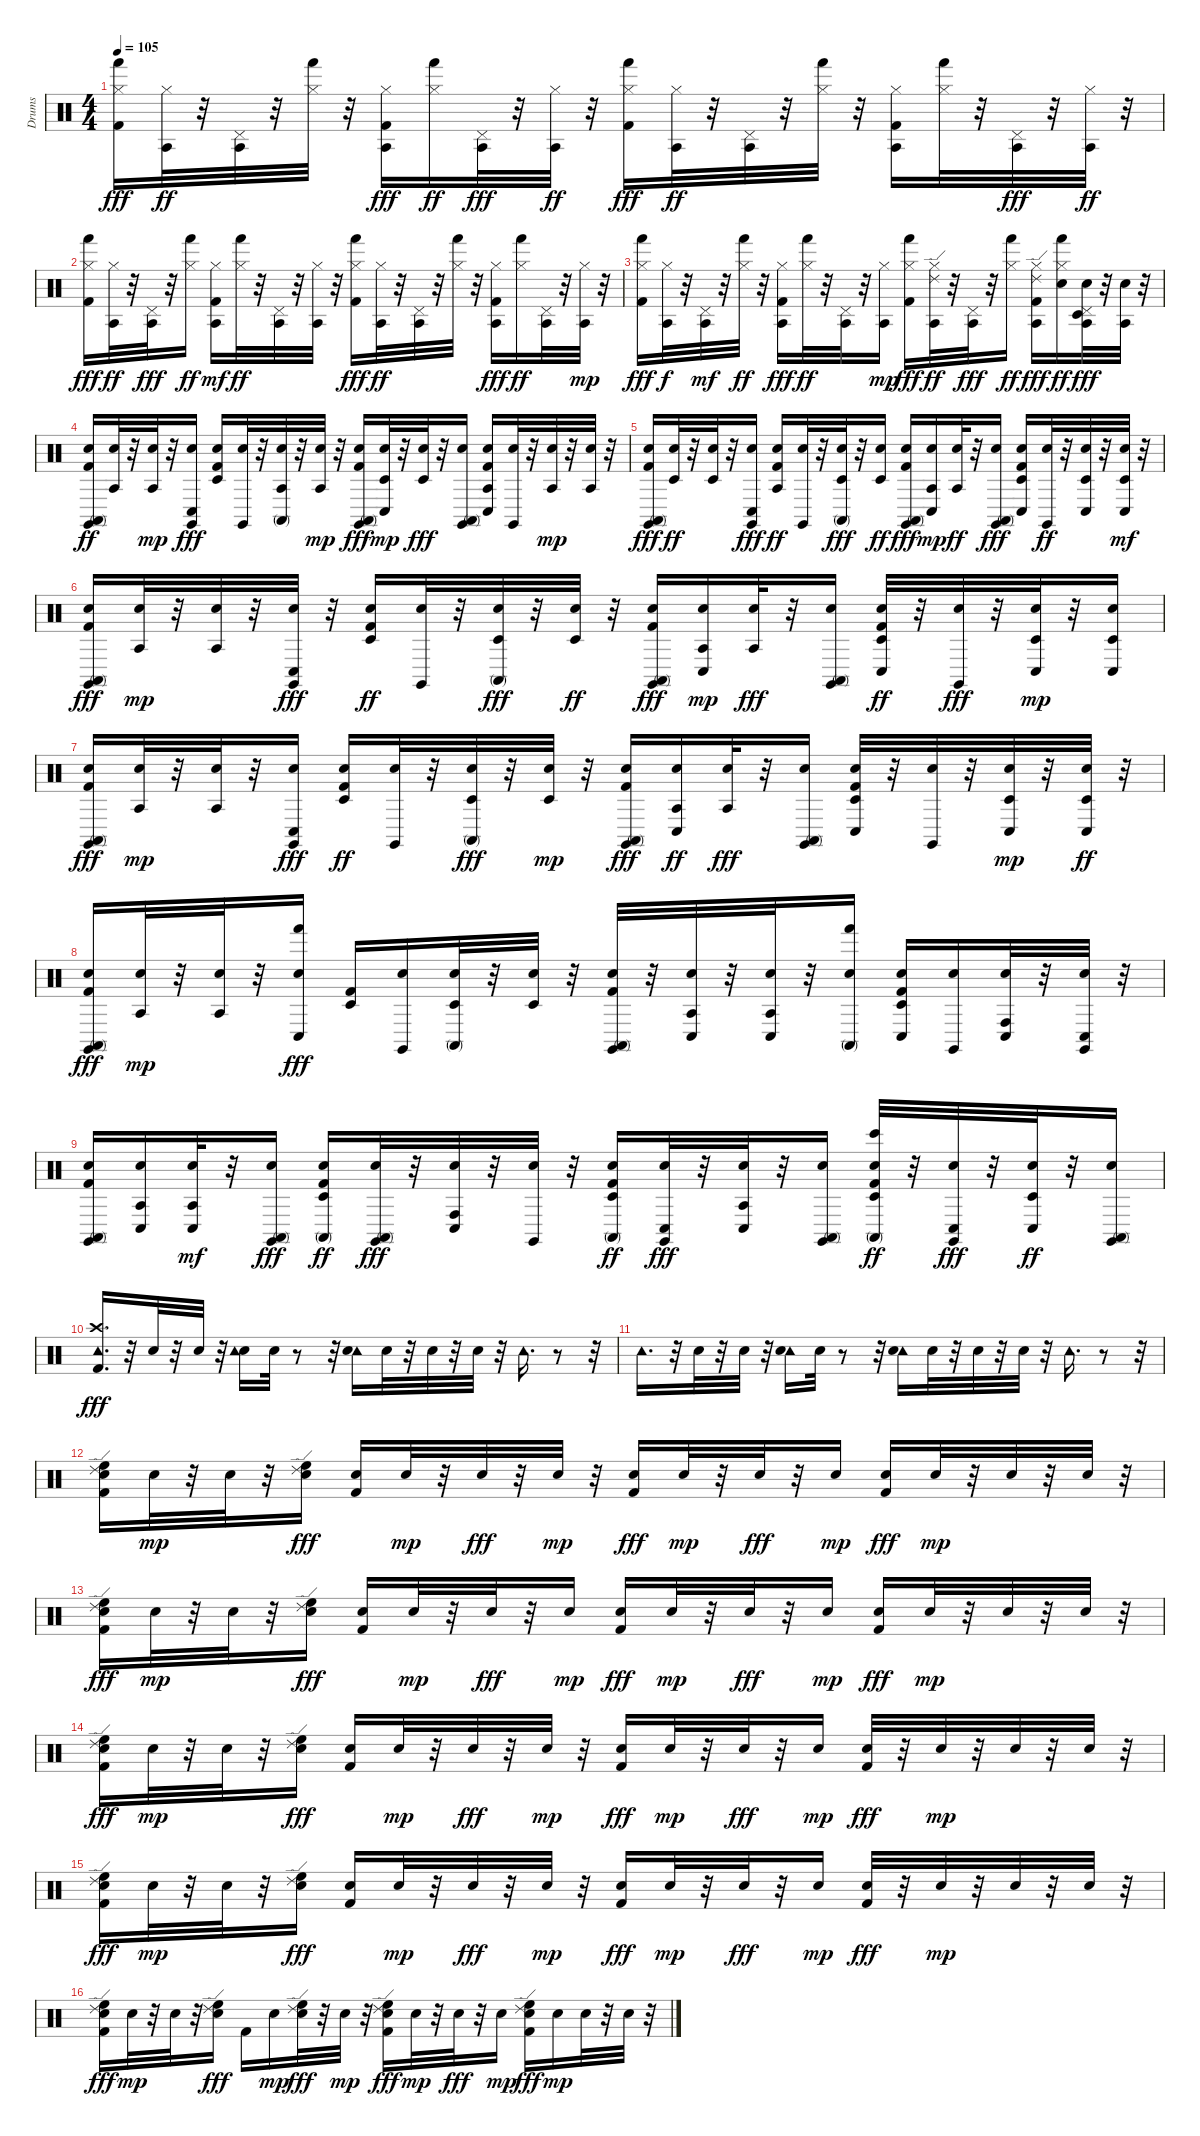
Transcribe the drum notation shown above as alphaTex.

\track ("Drums" "Drums") {instrument percussion}
\staff {score}
\articulation defaults
\ts (4 4)
\tempo 105
\clef neutral
\ks c
("Hand (hit)" "Hi-Hat (closed)" "Kick (hit) 2").16{dy fff} ("Agogo tow (hit)" "Hi-Hat (closed)").32{dy ff} r.32 ("Agogo tow (hit)" "Pedal Hi-Hat (hit)").32 r.32 ("Hi-Hat (closed)" "Hand (hit)").32 r.32 ("Agogo tow (hit)" "Hi-Hat (closed)" "Kick (hit) 2").16{dy fff} ("Hand (hit)" "Hi-Hat (closed)").16{dy ff} ("Agogo tow (hit)" "Pedal Hi-Hat (hit)").32{dy fff} r.32 ("Agogo tow (hit)" "Hi-Hat (closed)").32{dy ff} r.32 ("Hand (hit)" "Kick (hit) 2" "Hi-Hat (closed)").16{dy fff} ("Agogo tow (hit)" "Hi-Hat (closed)").32{dy ff} r.32 ("Agogo tow (hit)" "Pedal Hi-Hat (hit)").32 r.32 ("Hi-Hat (closed)" "Hand (hit)").32 r.32 ("Agogo tow (hit)" "Kick (hit) 2" "Hi-Hat (closed)").16 ("Hand (hit)" "Hi-Hat (closed)").32 r.32 ("Agogo tow (hit)" "Pedal Hi-Hat (hit)").32{dy fff} r.32 ("Agogo tow (hit)" "Hi-Hat (closed)").32{dy ff} r.32 |
("Hand (hit)" "Hi-Hat (closed)" "Kick (hit) 2").16{dy fff} ("Agogo tow (hit)" "Hi-Hat (closed)").32{dy ff} r.32 ("Agogo tow (hit)" "Pedal Hi-Hat (hit)").32{dy fff} r.32 ("Hi-Hat (closed)" "Hand (hit)").16{dy ff} ("Hi-Hat (closed)" "Kick (hit) 2" "Agogo tow (hit)").16{dy mf} ("Hi-Hat (closed)" "Hand (hit)").32{dy ff} r.32 ("Agogo tow (hit)" "Pedal Hi-Hat (hit)").32 r.32 ("Agogo tow (hit)" "Hi-Hat (closed)").32 r.32 ("Hand (hit)" "Hi-Hat (closed)" "Kick (hit) 2").16{dy fff} ("Agogo tow (hit)" "Hi-Hat (closed)").32{dy ff} r.32 ("Agogo tow (hit)" "Pedal Hi-Hat (hit)").32 r.32 ("Hand (hit)" "Hi-Hat (closed)").32 r.32 ("Hi-Hat (closed)" "Kick (hit) 2" "Agogo tow (hit)").16{dy fff} ("Hand (hit)" "Hi-Hat (closed)").16{dy ff} ("Agogo tow (hit)" "Pedal Hi-Hat (hit)").32 r.32 ("Agogo tow (hit)" "Hi-Hat (closed)").32{dy mp} r.32 |
("Hand (hit)" "Hi-Hat (closed)" "Kick (hit) 2").16{dy fff} ("Agogo tow (hit)" "Hi-Hat (closed)").32{dy f} r.32 ("Pedal Hi-Hat (hit)" "Agogo tow (hit)").32{dy mf} r.32 ("Hi-Hat (closed)" "Hand (hit)").32{dy ff} r.32 ("Agogo tow (hit)" "Hi-Hat (closed)" "Kick (hit) 2").16{dy fff} ("Hi-Hat (closed)" "Hand (hit)").32{dy ff} r.32 ("Agogo tow (hit)" "Pedal Hi-Hat (hit)").32 r.32 ("Agogo tow (hit)" "Hi-Hat (closed)").16{dy mp} ("Hand (hit)" "Hi-Hat (closed)" "Kick (hit) 2").16{dy fff} ("Ride (edge) 2" "Agogo tow (hit)" "Hi-Hat (closed)").32{dy ff} r.32 ("Pedal Hi-Hat (hit)" "Agogo tow (hit)").32{dy fff} r.32 ("Hand (hit)" "Hi-Hat (closed)").16{dy ff} ("Ride (edge) 2" "Agogo tow (hit)" "Hi-Hat (closed)" "Kick (hit) 2").16{dy fff} ("Hand (hit)" "Snare (hit) 2" "Hi-Hat (closed)").16{dy ff} ("Timbale low (hit)" "Agogo tow (hit)" "Snare (hit) 2" "Pedal Hi-Hat (hit)").32{dy fff} r.32 ("Agogo tow (hit)" "Snare (hit) 2").32 r.32 |
("Conga high (mute)" "Snare (hit) 2" "Kick (hit) 2" "Claves (hit)").16{dy ff} ("Snare (hit) 2" "Agogo tow (hit)").32 r.32 ("Snare (hit) 2" "Agogo tow (hit)").32{dy mp} r.32 ("Snare (hit) 2" "Conga low (hit)" "Claves (hit)").16{dy fff} ("Timbale low (hit)" "Snare (hit) 2" "Kick (hit) 2").16 ("Snare (hit) 2" "Claves (hit)").32 r.32 ("Conga high (mute)" "Agogo tow (hit)" "Snare (hit) 2").32 r.32 ("Agogo tow (hit)" "Snare (hit) 2").32{dy mp} r.32 ("Snare (hit) 2" "Kick (hit) 2" "Conga high (mute)" "Claves (hit)").16{dy fff} ("Snare (hit) 2" "Timbale low (hit)" "Conga low (hit)").32{dy mp} r.32 ("Timbale low (hit)" "Snare (hit) 2").32{dy fff} r.32 ("Conga high (mute)" "Snare (hit) 2" "Claves (hit)").16 ("Conga low (hit)" "Agogo tow (hit)" "Snare (hit) 2" "Kick (hit) 2").16 ("Snare (hit) 2" "Claves (hit)").32 r.32 ("Agogo tow (hit)" "Snare (hit) 2").32{dy mp} r.32 ("Agogo tow (hit)" "Snare (hit) 2").32 r.32 |
("Conga high (mute)" "Snare (hit) 2" "Kick (hit) 2" "Claves (hit)").16{dy fff} ("Snare (hit) 2" "Timbale low (hit)").32{dy ff} r.32 ("Snare (hit) 2" "Timbale low (hit)").32 r.32 ("Conga low (hit)" "Snare (hit) 2" "Claves (hit)").16{dy fff} ("Snare (hit) 2" "Kick (hit) 2" "Agogo tow (hit)").16{dy ff} ("Snare (hit) 2" "Claves (hit)").32 r.32 ("Conga high (mute)" "Timbale low (hit)" "Snare (hit) 2").32{dy fff} r.32 ("Snare (hit) 2" "Timbale low (hit)").16{dy ff} ("Conga high (mute)" "Snare (hit) 2" "Kick (hit) 2" "Claves (hit)").16{dy fff} ("Conga low (hit)" "Agogo tow (hit)" "Snare (hit) 2").16{dy mp} ("Snare (hit) 2" "Agogo tow (hit)").32{dy ff} r.32 ("Conga high (mute)" "Snare (hit) 2" "Claves (hit)").16{dy fff} ("Timbale low (hit)" "Snare (hit) 2" "Kick (hit) 2" "Conga low (hit)").16 ("Snare (hit) 2" "Claves (hit)").32{dy ff} r.32 ("Timbale low (hit)" "Snare (hit) 2" "Conga low (hit)").32 r.32 ("Timbale low (hit)" "Snare (hit) 2" "Conga low (hit)").32{dy mf} r.32 |
("Kick (hit) 2" "Snare (hit) 2" "Conga high (mute)" "Claves (hit)").16{dy fff} ("Agogo tow (hit)" "Snare (hit) 2").32{dy mp} r.32 ("Agogo tow (hit)" "Snare (hit) 2").32 r.32 ("Conga low (hit)" "Snare (hit) 2" "Claves (hit)").32{dy fff} r.32 ("Snare (hit) 2" "Kick (hit) 2" "Timbale low (hit)").16{dy ff} ("Snare (hit) 2" "Claves (hit)").32 r.32 ("Conga high (mute)" "Timbale low (hit)" "Snare (hit) 2").32{dy fff} r.32 ("Snare (hit) 2" "Timbale low (hit)").32{dy ff} r.32 ("Conga high (mute)" "Snare (hit) 2" "Kick (hit) 2" "Claves (hit)").16{dy fff} ("Conga low (hit)" "Agogo tow (hit)" "Snare (hit) 2").16{dy mp} ("Agogo tow (hit)" "Snare (hit) 2").32{dy fff} r.32 ("Conga high (mute)" "Snare (hit) 2" "Claves (hit)").16 ("Kick (hit) 2" "Snare (hit) 2" "Timbale low (hit)" "Conga low (hit)").32{dy ff} r.32 ("Snare (hit) 2" "Claves (hit)").32{dy fff} r.32 ("Timbale low (hit)" "Snare (hit) 2" "Conga low (hit)").32{dy mp} r.32 ("Conga low (hit)" "Timbale low (hit)" "Snare (hit) 2").16 |
("Kick (hit) 2" "Snare (hit) 2" "Conga high (mute)" "Claves (hit)").16{dy fff} ("Agogo tow (hit)" "Snare (hit) 2").32{dy mp} r.32 ("Agogo tow (hit)" "Snare (hit) 2").32 r.32 ("Conga low (hit)" "Snare (hit) 2" "Claves (hit)").16{dy fff} ("Snare (hit) 2" "Kick (hit) 2" "Timbale low (hit)").16{dy ff} ("Snare (hit) 2" "Claves (hit)").32 r.32 ("Conga high (mute)" "Timbale low (hit)" "Snare (hit) 2").32{dy fff} r.32 ("Timbale low (hit)" "Snare (hit) 2").32{dy mp} r.32 ("Snare (hit) 2" "Kick (hit) 2" "Conga high (mute)" "Claves (hit)").16{dy fff} ("Agogo tow (hit)" "Snare (hit) 2" "Conga low (hit)").16{dy ff} ("Agogo tow (hit)" "Snare (hit) 2").32{dy fff} r.32 ("Conga high (mute)" "Snare (hit) 2" "Claves (hit)").16 ("Timbale low (hit)" "Kick (hit) 2" "Snare (hit) 2" "Conga low (hit)").32 r.32 ("Snare (hit) 2" "Claves (hit)").32 r.32 ("Conga low (hit)" "Timbale low (hit)" "Snare (hit) 2").32{dy mp} r.32 ("Conga low (hit)" "Snare (hit) 2" "Timbale low (hit)").32{dy ff} r.32 |
("Conga high (mute)" "Snare (hit) 2" "Kick (hit) 2" "Claves (hit)").16{dy fff} ("Agogo tow (hit)" "Snare (hit) 2").32{dy mp} r.32 ("Agogo tow (hit)" "Snare (hit) 2").32 r.32 ("Conga low (hit)" "Hand (hit)" "Snare (hit) 2").16{dy fff} ("Kick (hit) 2" "Timbale low (hit)").16 ("Snare (hit) 2" "Claves (hit)").16 ("Conga high (mute)" "Timbale low (hit)" "Snare (hit) 2").32 r.32 ("Snare (hit) 2" "Timbale low (hit)").32 r.32 ("Conga high (mute)" "Snare (hit) 2" "Kick (hit) 2" "Claves (hit)").32 r.32 ("Conga low (hit)" "Snare (hit) 2" "Agogo tow (hit)").32 r.32 ("Conga low (hit)" "Snare (hit) 2" "Agogo tow (hit)").32 r.32 ("Conga high (mute)" "Snare (hit) 2" "Hand (hit)").16 ("Snare (hit) 2" "Kick (hit) 2" "Timbale low (hit)" "Conga low (hit)").16 ("Snare (hit) 2" "Claves (hit)").16 ("Snare (hit) 2" "Conga high (hit)" "Conga low (hit)").32 r.32 ("Conga low (hit)" "Snare (hit) 2" "Claves (hit)").32 r.32 |
("Snare (hit) 2" "Kick (hit) 2" "Conga high (mute)" "Claves (hit)").16 ("Conga low (hit)" "Snare (hit) 2" "Agogo tow (hit)").16 ("Snare (hit) 2" "Agogo tow (hit)" "Conga low (hit)").32{dy mf} r.32 ("Conga high (mute)" "Snare (hit) 2" "Claves (hit)").16{dy fff} ("Snare (hit) 2" "Kick (hit) 2" "Timbale low (hit)" "Conga high (mute)").16{dy ff} ("Snare (hit) 2" "Conga high (mute)" "Claves (hit)").32{dy fff} r.32 ("Snare (hit) 2" "Conga high (hit)" "Conga low (hit)").32 r.32 ("Snare (hit) 2" "Claves (hit)").32 r.32 ("Timbale low (hit)" "Snare (hit) 2" "Kick (hit) 2" "Conga high (mute)").16{dy ff} ("Conga low (hit)" "Snare (hit) 2" "Claves (hit)").32{dy fff} r.32 ("Agogo tow (hit)" "Snare (hit) 2" "Conga low (hit)").32 r.32 ("Snare (hit) 2" "Conga high (mute)" "Claves (hit)").16 ("Timbale low (hit)" "Snare (hit) 2" "Kick (hit) 2" "Conga high (mute)" "Bongo High (hit)").32{dy ff} r.32 ("Snare (hit) 2" "Conga low (hit)" "Claves (hit)").32{dy fff} r.32 ("Snare (hit) 2" "Timbale low (hit)" "Conga low (hit)").32{dy ff} r.32 ("Conga high (mute)" "Snare (hit) 2" "Claves (hit)").16 |
("Crash high (hit)" "Kick (hit) 2" "Tambourine (hit)").16{d dy fff} r.32 "Snare (hit) 2".32 r.32 "Snare (hit) 2".32 r.32 ("Snare (hit) 2" "Tambourine (hit)").16 "Snare (hit) 2".32 r.8 r.32 ("Tambourine (hit)" "Snare (hit) 2").16 "Snare (hit) 2".32 r.32 "Snare (hit) 2".32 r.32 "Snare (hit) 2".32 r.32 "Tambourine (hit)".16{d} r.8 r.32 |
"Tambourine (hit)".16{d} r.32 "Snare (hit) 2".32 r.32 "Snare (hit) 2".32 r.32 ("Tambourine (hit)" "Snare (hit) 2").16 "Snare (hit) 2".32 r.8 r.32 ("Tambourine (hit)" "Snare (hit) 2").16 "Snare (hit) 2".32 r.32 "Snare (hit) 2".32 r.32 "Snare (hit) 2".32 r.32 "Tambourine (hit)".16{d} r.8 r.32 |
("High Floor Tom (hit)" "Ride (edge) 2" "Snare (hit) 2" "Kick (hit) 2").16 "Snare (hit) 2".32{dy mp} r.32 "Snare (hit) 2".32 r.32 ("Ride (edge) 2" "High Floor Tom (hit)" "Snare (hit) 2").16{dy fff} ("Snare (hit) 2" "Kick (hit) 2").16 "Snare (hit) 2".32{dy mp} r.32 "Snare (hit) 2".32{dy fff} r.32 "Snare (hit) 2".32{dy mp} r.32 ("Snare (hit) 2" "Kick (hit) 2").16{dy fff} "Snare (hit) 2".32{dy mp} r.32 "Snare (hit) 2".32{dy fff} r.32 "Snare (hit) 2".16{dy mp} ("Snare (hit) 2" "Kick (hit) 2").16{dy fff} "Snare (hit) 2".32{dy mp} r.32 "Snare (hit) 2".32 r.32 "Snare (hit) 2".32 r.32 |
("High Floor Tom (hit)" "Ride (edge) 2" "Snare (hit) 2" "Kick (hit) 2").16{dy fff} "Snare (hit) 2".32{dy mp} r.32 "Snare (hit) 2".32 r.32 ("Ride (edge) 2" "High Floor Tom (hit)" "Snare (hit) 2").16{dy fff} ("Snare (hit) 2" "Kick (hit) 2").16 "Snare (hit) 2".32{dy mp} r.32 "Snare (hit) 2".32{dy fff} r.32 "Snare (hit) 2".16{dy mp} ("Snare (hit) 2" "Kick (hit) 2").16{dy fff} "Snare (hit) 2".32{dy mp} r.32 "Snare (hit) 2".32{dy fff} r.32 "Snare (hit) 2".16{dy mp} ("Snare (hit) 2" "Kick (hit) 2").16{dy fff} "Snare (hit) 2".32{dy mp} r.32 "Snare (hit) 2".32 r.32 "Snare (hit) 2".32 r.32 |
("High Floor Tom (hit)" "Ride (edge) 2" "Kick (hit) 2" "Snare (hit) 2").16{dy fff} "Snare (hit) 2".32{dy mp} r.32 "Snare (hit) 2".32 r.32 ("High Floor Tom (hit)" "Ride (edge) 2" "Snare (hit) 2").16{dy fff} ("Snare (hit) 2" "Kick (hit) 2").16 "Snare (hit) 2".32{dy mp} r.32 "Snare (hit) 2".32{dy fff} r.32 "Snare (hit) 2".32{dy mp} r.32 ("Snare (hit) 2" "Kick (hit) 2").16{dy fff} "Snare (hit) 2".32{dy mp} r.32 "Snare (hit) 2".32{dy fff} r.32 "Snare (hit) 2".16{dy mp} ("Kick (hit) 2" "Snare (hit) 2").32{dy fff} r.32 "Snare (hit) 2".32{dy mp} r.32 "Snare (hit) 2".32 r.32 "Snare (hit) 2".32 r.32 |
("High Floor Tom (hit)" "Ride (edge) 2" "Kick (hit) 2" "Snare (hit) 2").16{dy fff} "Snare (hit) 2".32{dy mp} r.32 "Snare (hit) 2".32 r.32 ("High Floor Tom (hit)" "Ride (edge) 2" "Snare (hit) 2").16{dy fff} ("Snare (hit) 2" "Kick (hit) 2").16 "Snare (hit) 2".32{dy mp} r.32 "Snare (hit) 2".32{dy fff} r.32 "Snare (hit) 2".32{dy mp} r.32 ("Snare (hit) 2" "Kick (hit) 2").16{dy fff} "Snare (hit) 2".32{dy mp} r.32 "Snare (hit) 2".32{dy fff} r.32 "Snare (hit) 2".16{dy mp} ("Kick (hit) 2" "Snare (hit) 2").32{dy fff} r.32 "Snare (hit) 2".32{dy mp} r.32 "Snare (hit) 2".32 r.32 "Snare (hit) 2".32 r.32 |
("Ride (edge) 2" "High Floor Tom (hit)" "Snare (hit) 2" "Kick (hit) 2").16{dy fff} "Snare (hit) 2".32{dy mp} r.32 "Snare (hit) 2".32 r.32 ("High Floor Tom (hit)" "Ride (edge) 2" "Snare (hit) 2").16{dy fff} "Kick (hit) 2".16 "Snare (hit) 2".16{dy mp} ("Ride (edge) 2" "High Floor Tom (hit)" "Snare (hit) 2").32{dy fff} r.32 "Snare (hit) 2".32{dy mp} r.32 ("Ride (edge) 2" "High Floor Tom (hit)" "Snare (hit) 2" "Kick (hit) 2").16{dy fff} "Snare (hit) 2".32{dy mp} r.32 "Snare (hit) 2".32{dy fff} r.32 "Snare (hit) 2".16{dy mp} ("High Floor Tom (hit)" "Ride (edge) 2" "Snare (hit) 2" "Kick (hit) 2").16{dy fff} "Snare (hit) 2".16{dy mp} "Snare (hit) 2".32 r.32 "Snare (hit) 2".32 r.32
